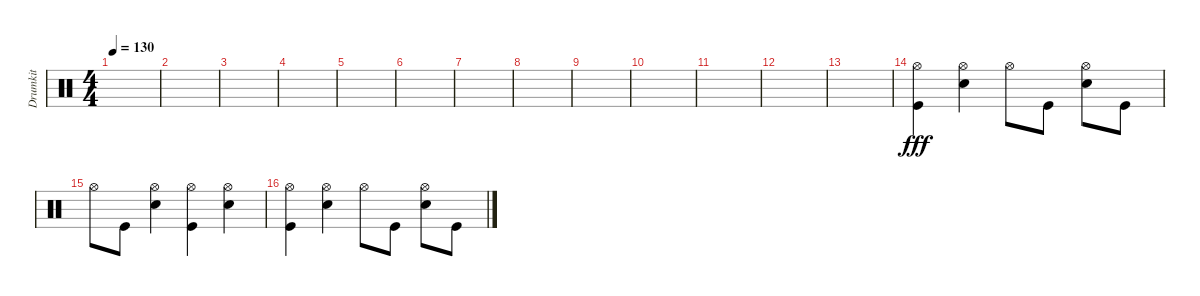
\track ("Drumkit" "Drumkit") {instrument percussion}
\staff {score}
\articulation defaults
\ts (4 4)
\tempo 130
\clef neutral
\ks c
|
|
|
|
|
|
|
|
|
|
|
|
|
("Kick (hit)" "Hi-Hat (open)").4{dy fff} ("Snare (hit) 2" "Hi-Hat (open)").4 "Hi-Hat (open)".8 "Kick (hit)".8 ("Hi-Hat (open)" "Snare (hit) 2").8 "Kick (hit)".8 |
"Hi-Hat (open)".8 "Kick (hit)".8 ("Snare (hit) 2" "Hi-Hat (open)").4 ("Hi-Hat (open)" "Kick (hit)").4 ("Hi-Hat (open)" "Snare (hit) 2").4 |
("Kick (hit)" "Hi-Hat (open)").4 ("Snare (hit) 2" "Hi-Hat (open)").4 "Hi-Hat (open)".8 "Kick (hit)".8 ("Hi-Hat (open)" "Snare (hit) 2").8 "Kick (hit)".8
